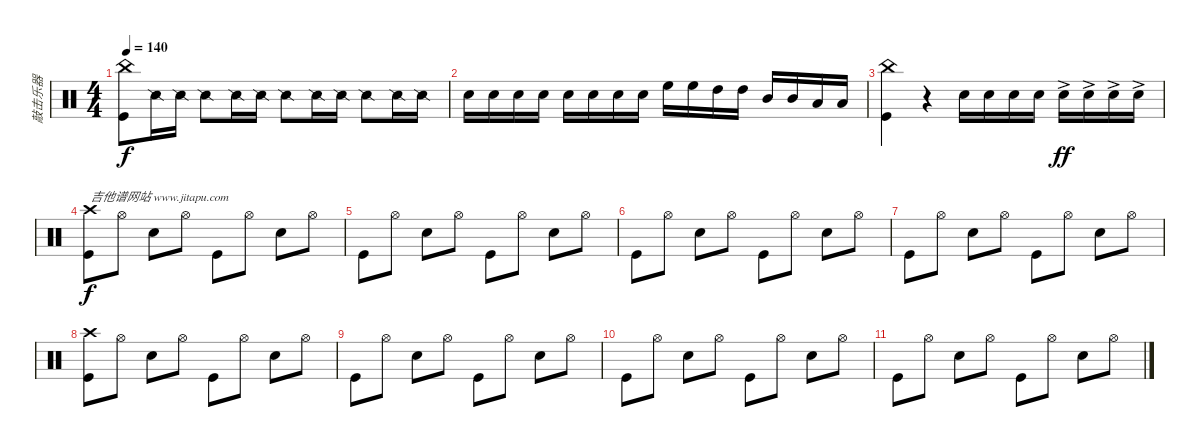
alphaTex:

\track ("敲击乐器" "敲击乐器") {instrument percussion}
\staff {score}
\articulation defaults
\ts (4 4)
\tempo 140
\clef neutral
\ks c
("China (hit)" "Kick (hit)").8{dy f} "Snare (side stick) 2".16 "Snare (side stick) 2".16 "Snare (side stick) 2".8 "Snare (side stick) 2".16 "Snare (side stick) 2".16 "Snare (side stick) 2".8 "Snare (side stick) 2".16 "Snare (side stick) 2".16 "Snare (side stick) 2".8 "Snare (side stick) 2".16 "Snare (side stick) 2".16 |
"Electric Snare (hit)".16 "Electric Snare (hit)".16 "Electric Snare (hit)".16 "Electric Snare (hit)".16 "Electric Snare (hit)".16 "Electric Snare (hit)".16 "Electric Snare (hit)".16 "Electric Snare (hit)".16 "High Floor Tom (hit)".16 "High Floor Tom (hit)".16 "High Tom (hit)".16 "High Tom (hit)".16 "Mid Tom (hit)".16 "Mid Tom (hit)".16 "Low Tom (hit)".16 "Low Tom (hit)".16 |
("China (hit)" "Kick (hit)").4 r.4 "Electric Snare (hit)".16 "Electric Snare (hit)".16 "Electric Snare (hit)".16 "Electric Snare (hit)".16 "Electric Snare (hit)"{ac}.16{dy ff} "Electric Snare (hit)"{ac}.16 "Electric Snare (hit)"{ac}.16 "Electric Snare (hit)"{ac}.16 |
("Crash high (hit)" "Kick (hit)").8{txt "吉他谱网站 www.jitapu.com" dy f} "Hi-Hat (open)".8 "Electric Snare (hit)".8 "Hi-Hat (open)".8 "Kick (hit)".8 "Hi-Hat (open)".8 "Electric Snare (hit)".8 "Hi-Hat (open)".8 |
"Kick (hit)".8 "Hi-Hat (open)".8 "Electric Snare (hit)".8 "Hi-Hat (open)".8 "Kick (hit)".8 "Hi-Hat (open)".8 "Electric Snare (hit)".8 "Hi-Hat (open)".8 |
"Kick (hit)".8 "Hi-Hat (open)".8 "Electric Snare (hit)".8 "Hi-Hat (open)".8 "Kick (hit)".8 "Hi-Hat (open)".8 "Electric Snare (hit)".8 "Hi-Hat (open)".8 |
"Kick (hit)".8 "Hi-Hat (open)".8 "Electric Snare (hit)".8 "Hi-Hat (open)".8 "Kick (hit)".8 "Hi-Hat (open)".8 "Electric Snare (hit)".8 "Hi-Hat (open)".8 |
("Crash high (hit)" "Kick (hit)").8 "Hi-Hat (open)".8 "Snare (hit) 2".8 "Hi-Hat (open)".8 "Kick (hit)".8 "Hi-Hat (open)".8 "Snare (hit) 2".8 "Hi-Hat (open)".8 |
"Kick (hit)".8 "Hi-Hat (open)".8 "Snare (hit) 2".8 "Hi-Hat (open)".8 "Kick (hit)".8 "Hi-Hat (open)".8 "Snare (hit) 2".8 "Hi-Hat (open)".8 |
"Kick (hit)".8 "Hi-Hat (open)".8 "Snare (hit) 2".8 "Hi-Hat (open)".8 "Kick (hit)".8 "Hi-Hat (open)".8 "Snare (hit) 2".8 "Hi-Hat (open)".8 |
"Kick (hit)".8 "Hi-Hat (open)".8 "Snare (hit) 2".8 "Hi-Hat (open)".8 "Kick (hit)".8 "Hi-Hat (open)".8 "Snare (hit) 2".8 "Hi-Hat (open)".8
